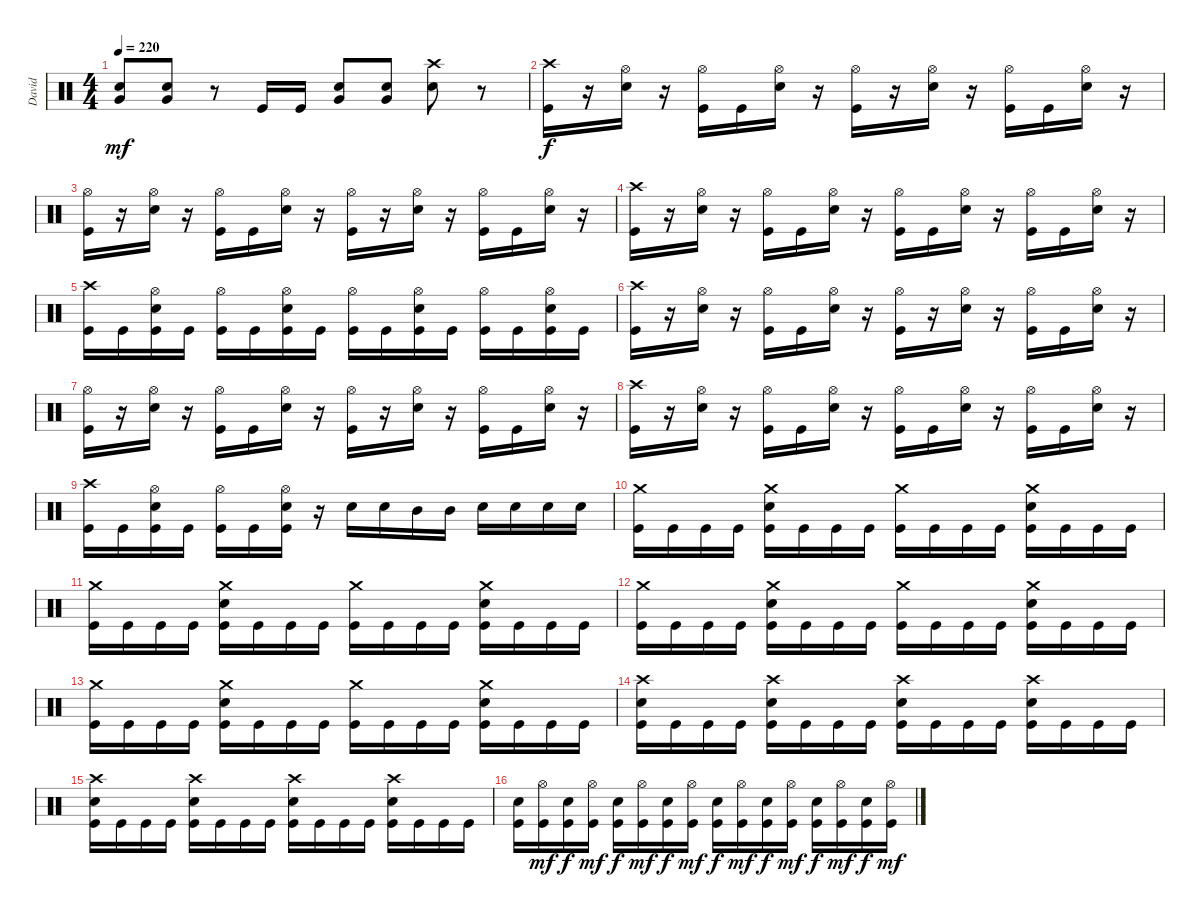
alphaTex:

\track ("David" "David") {instrument percussion}
\staff {score}
\articulation defaults
\ts (4 4)
\tempo 220
\clef neutral
\ks c
("Very Low Tom (hit)" "Electric Snare (hit)").8{dy mf} ("Very Low Tom (hit)" "Electric Snare (hit)").8 r.8 "Kick (hit)".16 "Kick (hit)".16 ("Very Low Tom (hit)" "Electric Snare (hit)").8 ("Very Low Tom (hit)" "Electric Snare (hit)").8 ("Crash high (hit)" "Electric Snare (hit)").8 r.8 |
("Crash high (hit)" "Kick (hit)").16{dy f} r.16 ("Hi-Hat (open)" "Electric Snare (hit)").16 r.16 ("Hi-Hat (open)" "Kick (hit)").16 "Kick (hit)".16 ("Hi-Hat (open)" "Electric Snare (hit)").16 r.16 ("Hi-Hat (open)" "Kick (hit)").16 r.16 ("Hi-Hat (open)" "Electric Snare (hit)").16 r.16 ("Hi-Hat (open)" "Kick (hit)").16 "Kick (hit)".16 ("Hi-Hat (open)" "Electric Snare (hit)").16 r.16 |
("Hi-Hat (open)" "Kick (hit)").16 r.16 ("Hi-Hat (open)" "Electric Snare (hit)").16 r.16 ("Hi-Hat (open)" "Kick (hit)").16 "Kick (hit)".16 ("Hi-Hat (open)" "Electric Snare (hit)").16 r.16 ("Hi-Hat (open)" "Kick (hit)").16 r.16 ("Hi-Hat (open)" "Electric Snare (hit)").16 r.16 ("Hi-Hat (open)" "Kick (hit)").16 "Kick (hit)".16 ("Hi-Hat (open)" "Electric Snare (hit)").16 r.16 |
("Crash high (hit)" "Kick (hit)").16 r.16 ("Hi-Hat (open)" "Electric Snare (hit)").16 r.16 ("Hi-Hat (open)" "Kick (hit)").16 "Kick (hit)".16 ("Hi-Hat (open)" "Electric Snare (hit)").16 r.16 ("Hi-Hat (open)" "Kick (hit)").16 "Kick (hit)".16 ("Hi-Hat (open)" "Electric Snare (hit)").16 r.16 ("Hi-Hat (open)" "Kick (hit)").16 "Kick (hit)".16 ("Hi-Hat (open)" "Electric Snare (hit)").16 r.16 |
("Crash high (hit)" "Kick (hit)").16 "Kick (hit)".16 ("Hi-Hat (open)" "Electric Snare (hit)" "Kick (hit)").16 "Kick (hit)".16 ("Hi-Hat (open)" "Kick (hit)").16 "Kick (hit)".16 ("Hi-Hat (open)" "Electric Snare (hit)" "Kick (hit)").16 "Kick (hit)".16 ("Hi-Hat (open)" "Kick (hit)").16 "Kick (hit)".16 ("Hi-Hat (open)" "Electric Snare (hit)" "Kick (hit)").16 "Kick (hit)".16 ("Hi-Hat (open)" "Kick (hit)").16 "Kick (hit)".16 ("Hi-Hat (open)" "Electric Snare (hit)" "Kick (hit)").16 "Kick (hit)".16 |
("Crash high (hit)" "Kick (hit)").16 r.16 ("Hi-Hat (open)" "Electric Snare (hit)").16 r.16 ("Hi-Hat (open)" "Kick (hit)").16 "Kick (hit)".16 ("Hi-Hat (open)" "Electric Snare (hit)").16 r.16 ("Hi-Hat (open)" "Kick (hit)").16 r.16 ("Hi-Hat (open)" "Electric Snare (hit)").16 r.16 ("Hi-Hat (open)" "Kick (hit)").16 "Kick (hit)".16 ("Hi-Hat (open)" "Electric Snare (hit)").16 r.16 |
("Hi-Hat (open)" "Kick (hit)").16 r.16 ("Hi-Hat (open)" "Electric Snare (hit)").16 r.16 ("Hi-Hat (open)" "Kick (hit)").16 "Kick (hit)".16 ("Hi-Hat (open)" "Electric Snare (hit)").16 r.16 ("Hi-Hat (open)" "Kick (hit)").16 r.16 ("Hi-Hat (open)" "Electric Snare (hit)").16 r.16 ("Hi-Hat (open)" "Kick (hit)").16 "Kick (hit)".16 ("Hi-Hat (open)" "Electric Snare (hit)").16 r.16 |
("Crash high (hit)" "Kick (hit)").16 r.16 ("Hi-Hat (open)" "Electric Snare (hit)").16 r.16 ("Hi-Hat (open)" "Kick (hit)").16 "Kick (hit)".16 ("Hi-Hat (open)" "Electric Snare (hit)").16 r.16 ("Hi-Hat (open)" "Kick (hit)").16 "Kick (hit)".16 ("Hi-Hat (open)" "Electric Snare (hit)").16 r.16 ("Hi-Hat (open)" "Kick (hit)").16 "Kick (hit)".16 ("Hi-Hat (open)" "Electric Snare (hit)").16 r.16 |
("Crash high (hit)" "Kick (hit)").16 "Kick (hit)".16 ("Hi-Hat (open)" "Electric Snare (hit)" "Kick (hit)").16 "Kick (hit)".16 ("Hi-Hat (open)" "Kick (hit)").16 "Kick (hit)".16 ("Hi-Hat (open)" "Electric Snare (hit)" "Kick (hit)").16 r.16 "Electric Snare (hit)".16 "Electric Snare (hit)".16 "Mid Tom (hit)".16 "Mid Tom (hit)".16 "Electric Snare (hit)".16 "Electric Snare (hit)".16 "Electric Snare (hit)".16 "Electric Snare (hit)".16 |
("Crash medium (hit)" "Kick (hit)").16 "Kick (hit)".16 "Kick (hit)".16 "Kick (hit)".16 ("Crash medium (hit)" "Electric Snare (hit)" "Kick (hit)").16 "Kick (hit)".16 "Kick (hit)".16 "Kick (hit)".16 ("Crash medium (hit)" "Kick (hit)").16 "Kick (hit)".16 "Kick (hit)".16 "Kick (hit)".16 ("Crash medium (hit)" "Electric Snare (hit)" "Kick (hit)").16 "Kick (hit)".16 "Kick (hit)".16 "Kick (hit)".16 |
("Crash medium (hit)" "Kick (hit)").16 "Kick (hit)".16 "Kick (hit)".16 "Kick (hit)".16 ("Crash medium (hit)" "Electric Snare (hit)" "Kick (hit)").16 "Kick (hit)".16 "Kick (hit)".16 "Kick (hit)".16 ("Crash medium (hit)" "Kick (hit)").16 "Kick (hit)".16 "Kick (hit)".16 "Kick (hit)".16 ("Crash medium (hit)" "Electric Snare (hit)" "Kick (hit)").16 "Kick (hit)".16 "Kick (hit)".16 "Kick (hit)".16 |
("Crash medium (hit)" "Kick (hit)").16 "Kick (hit)".16 "Kick (hit)".16 "Kick (hit)".16 ("Crash medium (hit)" "Electric Snare (hit)" "Kick (hit)").16 "Kick (hit)".16 "Kick (hit)".16 "Kick (hit)".16 ("Crash medium (hit)" "Kick (hit)").16 "Kick (hit)".16 "Kick (hit)".16 "Kick (hit)".16 ("Crash medium (hit)" "Electric Snare (hit)" "Kick (hit)").16 "Kick (hit)".16 "Kick (hit)".16 "Kick (hit)".16 |
("Crash medium (hit)" "Kick (hit)").16 "Kick (hit)".16 "Kick (hit)".16 "Kick (hit)".16 ("Crash medium (hit)" "Electric Snare (hit)" "Kick (hit)").16 "Kick (hit)".16 "Kick (hit)".16 "Kick (hit)".16 ("Crash medium (hit)" "Kick (hit)").16 "Kick (hit)".16 "Kick (hit)".16 "Kick (hit)".16 ("Crash medium (hit)" "Electric Snare (hit)" "Kick (hit)").16 "Kick (hit)".16 "Kick (hit)".16 "Kick (hit)".16 |
("Crash high (hit)" "Electric Snare (hit)" "Kick (hit)").16 "Kick (hit)".16 "Kick (hit)".16 "Kick (hit)".16 ("Crash high (hit)" "Electric Snare (hit)" "Kick (hit)").16 "Kick (hit)".16 "Kick (hit)".16 "Kick (hit)".16 ("Crash high (hit)" "Electric Snare (hit)" "Kick (hit)").16 "Kick (hit)".16 "Kick (hit)".16 "Kick (hit)".16 ("Crash high (hit)" "Electric Snare (hit)" "Kick (hit)").16 "Kick (hit)".16 "Kick (hit)".16 "Kick (hit)".16 |
("Crash high (hit)" "Electric Snare (hit)" "Kick (hit)").16 "Kick (hit)".16 "Kick (hit)".16 "Kick (hit)".16 ("Crash high (hit)" "Electric Snare (hit)" "Kick (hit)").16 "Kick (hit)".16 "Kick (hit)".16 "Kick (hit)".16 ("Crash high (hit)" "Electric Snare (hit)" "Kick (hit)").16 "Kick (hit)".16 "Kick (hit)".16 "Kick (hit)".16 ("Crash high (hit)" "Electric Snare (hit)" "Kick (hit)").16 "Kick (hit)".16 "Kick (hit)".16 "Kick (hit)".16 |
("Electric Snare (hit)" "Kick (hit)").16 ("Hi-Hat (open)" "Kick (hit)").16{dy mf} ("Electric Snare (hit)" "Kick (hit)").16{dy f} ("Hi-Hat (open)" "Kick (hit)").16{dy mf} ("Electric Snare (hit)" "Kick (hit)").16{dy f} ("Hi-Hat (open)" "Kick (hit)").16{dy mf} ("Electric Snare (hit)" "Kick (hit)").16{dy f} ("Hi-Hat (open)" "Kick (hit)").16{dy mf} ("Electric Snare (hit)" "Kick (hit)").16{dy f} ("Hi-Hat (open)" "Kick (hit)").16{dy mf} ("Electric Snare (hit)" "Kick (hit)").16{dy f} ("Hi-Hat (open)" "Kick (hit)").16{dy mf} ("Electric Snare (hit)" "Kick (hit)").16{dy f} ("Hi-Hat (open)" "Kick (hit)").16{dy mf} ("Electric Snare (hit)" "Kick (hit)").16{dy f} ("Hi-Hat (open)" "Kick (hit)").16{dy mf}
